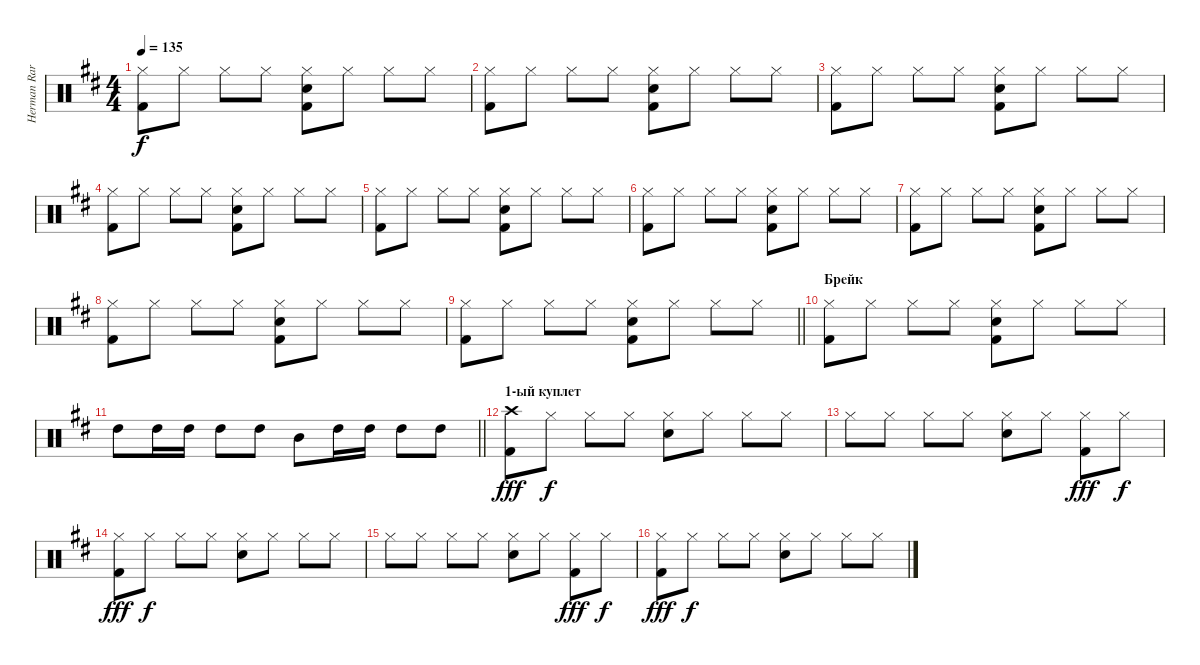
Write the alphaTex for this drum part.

\track ("Herman Rarebell" "Herman Rar") {instrument percussion}
\staff {score}
\articulation defaults
\ts (4 4)
\tempo 135
\clef neutral
\ks d
("Hi-Hat (closed)" "Kick (hit) 2").8{dy f} "Hi-Hat (closed)".8 "Hi-Hat (closed)".8 "Hi-Hat (closed)".8 ("Hi-Hat (closed)" "Snare (hit) 2" "Kick (hit) 2").8 "Hi-Hat (closed)".8 "Hi-Hat (closed)".8 "Hi-Hat (closed)".8 |
("Hi-Hat (closed)" "Kick (hit) 2").8 "Hi-Hat (closed)".8 "Hi-Hat (closed)".8 "Hi-Hat (closed)".8 ("Hi-Hat (closed)" "Snare (hit) 2" "Kick (hit) 2").8 "Hi-Hat (closed)".8 "Hi-Hat (closed)".8 "Hi-Hat (closed)".8 |
("Hi-Hat (closed)" "Kick (hit) 2").8 "Hi-Hat (closed)".8 "Hi-Hat (closed)".8 "Hi-Hat (closed)".8 ("Hi-Hat (closed)" "Snare (hit) 2" "Kick (hit) 2").8 "Hi-Hat (closed)".8 "Hi-Hat (closed)".8 "Hi-Hat (closed)".8 |
("Hi-Hat (closed)" "Kick (hit) 2").8 "Hi-Hat (closed)".8 "Hi-Hat (closed)".8 "Hi-Hat (closed)".8 ("Hi-Hat (closed)" "Snare (hit) 2" "Kick (hit) 2").8 "Hi-Hat (closed)".8 "Hi-Hat (closed)".8 "Hi-Hat (closed)".8 |
("Hi-Hat (closed)" "Kick (hit) 2").8 "Hi-Hat (closed)".8 "Hi-Hat (closed)".8 "Hi-Hat (closed)".8 ("Hi-Hat (closed)" "Snare (hit) 2" "Kick (hit) 2").8 "Hi-Hat (closed)".8 "Hi-Hat (closed)".8 "Hi-Hat (closed)".8 |
("Hi-Hat (closed)" "Kick (hit) 2").8 "Hi-Hat (closed)".8 "Hi-Hat (closed)".8 "Hi-Hat (closed)".8 ("Hi-Hat (closed)" "Snare (hit) 2" "Kick (hit) 2").8 "Hi-Hat (closed)".8 "Hi-Hat (closed)".8 "Hi-Hat (closed)".8 |
("Hi-Hat (closed)" "Kick (hit) 2").8 "Hi-Hat (closed)".8 "Hi-Hat (closed)".8 "Hi-Hat (closed)".8 ("Hi-Hat (closed)" "Snare (hit) 2" "Kick (hit) 2").8 "Hi-Hat (closed)".8 "Hi-Hat (closed)".8 "Hi-Hat (closed)".8 |
("Hi-Hat (closed)" "Kick (hit) 2").8 "Hi-Hat (closed)".8 "Hi-Hat (closed)".8 "Hi-Hat (closed)".8 ("Hi-Hat (closed)" "Snare (hit) 2" "Kick (hit) 2").8 "Hi-Hat (closed)".8 "Hi-Hat (closed)".8 "Hi-Hat (closed)".8 |
\barLineRight lightlight
("Hi-Hat (closed)" "Kick (hit) 2").8 "Hi-Hat (closed)".8 "Hi-Hat (closed)".8 "Hi-Hat (closed)".8 ("Hi-Hat (closed)" "Snare (hit) 2" "Kick (hit) 2").8 "Hi-Hat (closed)".8 "Hi-Hat (closed)".8 "Hi-Hat (closed)".8 |
\section ("" "Брейк")
("Hi-Hat (closed)" "Kick (hit) 2").8 "Hi-Hat (closed)".8 "Hi-Hat (closed)".8 "Hi-Hat (closed)".8 ("Hi-Hat (closed)" "Snare (hit) 2" "Kick (hit) 2").8 "Hi-Hat (closed)".8 "Hi-Hat (closed)".8 "Hi-Hat (closed)".8 |
\barLineRight lightlight "High Tom (hit)".8 "High Tom (hit)".16 "High Tom (hit)".16 "High Tom (hit)".8 "High Tom (hit)".8 "Mid Tom (hit)".8 "High Tom (hit)".16 "High Tom (hit)".16 "High Tom (hit)".8 "High Tom (hit)".8
|
\section ("" "1-ый куплет")
("Crash high (hit)" "Kick (hit) 2").8{dy fff} "Hi-Hat (closed)".8{dy f} "Hi-Hat (closed)".8 "Hi-Hat (closed)".8 ("Hi-Hat (closed)" "Snare (hit) 2").8 "Hi-Hat (closed)".8 "Hi-Hat (closed)".8 "Hi-Hat (closed)".8 |
"Hi-Hat (closed)".8 "Hi-Hat (closed)".8 "Hi-Hat (closed)".8 "Hi-Hat (closed)".8 ("Hi-Hat (closed)" "Snare (hit) 2").8 "Hi-Hat (closed)".8 ("Hi-Hat (closed)" "Kick (hit) 2").8{dy fff} "Hi-Hat (closed)".8{dy f} |
("Hi-Hat (closed)" "Kick (hit) 2").8{dy fff} "Hi-Hat (closed)".8{dy f} "Hi-Hat (closed)".8 "Hi-Hat (closed)".8 ("Hi-Hat (closed)" "Snare (hit) 2").8 "Hi-Hat (closed)".8 "Hi-Hat (closed)".8 "Hi-Hat (closed)".8 |
"Hi-Hat (closed)".8 "Hi-Hat (closed)".8 "Hi-Hat (closed)".8 "Hi-Hat (closed)".8 ("Hi-Hat (closed)" "Snare (hit) 2").8 "Hi-Hat (closed)".8 ("Hi-Hat (closed)" "Kick (hit) 2").8{dy fff} "Hi-Hat (closed)".8{dy f} |
("Hi-Hat (closed)" "Kick (hit) 2").8{dy fff} "Hi-Hat (closed)".8{dy f} "Hi-Hat (closed)".8 "Hi-Hat (closed)".8 ("Hi-Hat (closed)" "Snare (hit) 2").8 "Hi-Hat (closed)".8 "Hi-Hat (closed)".8 "Hi-Hat (closed)".8
